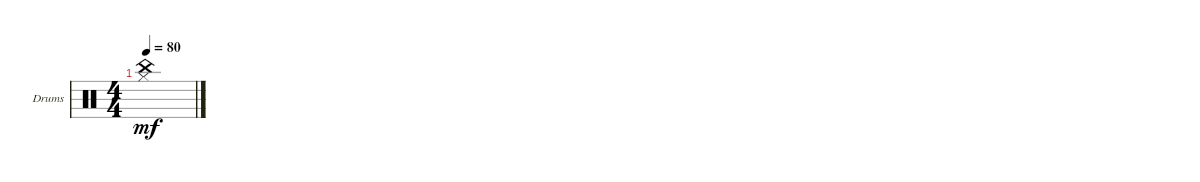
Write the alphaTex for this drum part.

\defaultSystemsLayout 4
\bracketExtendMode groupsimilarinstruments
\firstSystemTrackNameOrientation horizontal
\otherSystemsTrackNameOrientation horizontal
\track ("Drumkit" "Drums") {instrument percussion}
\staff {score}
\articulation defaults
\ts (4 4)
\tempo 80
\clef neutral
\ks c
("China (hit)"{t} "Hi-Hat (closed)"{t}).1{dy mf}
